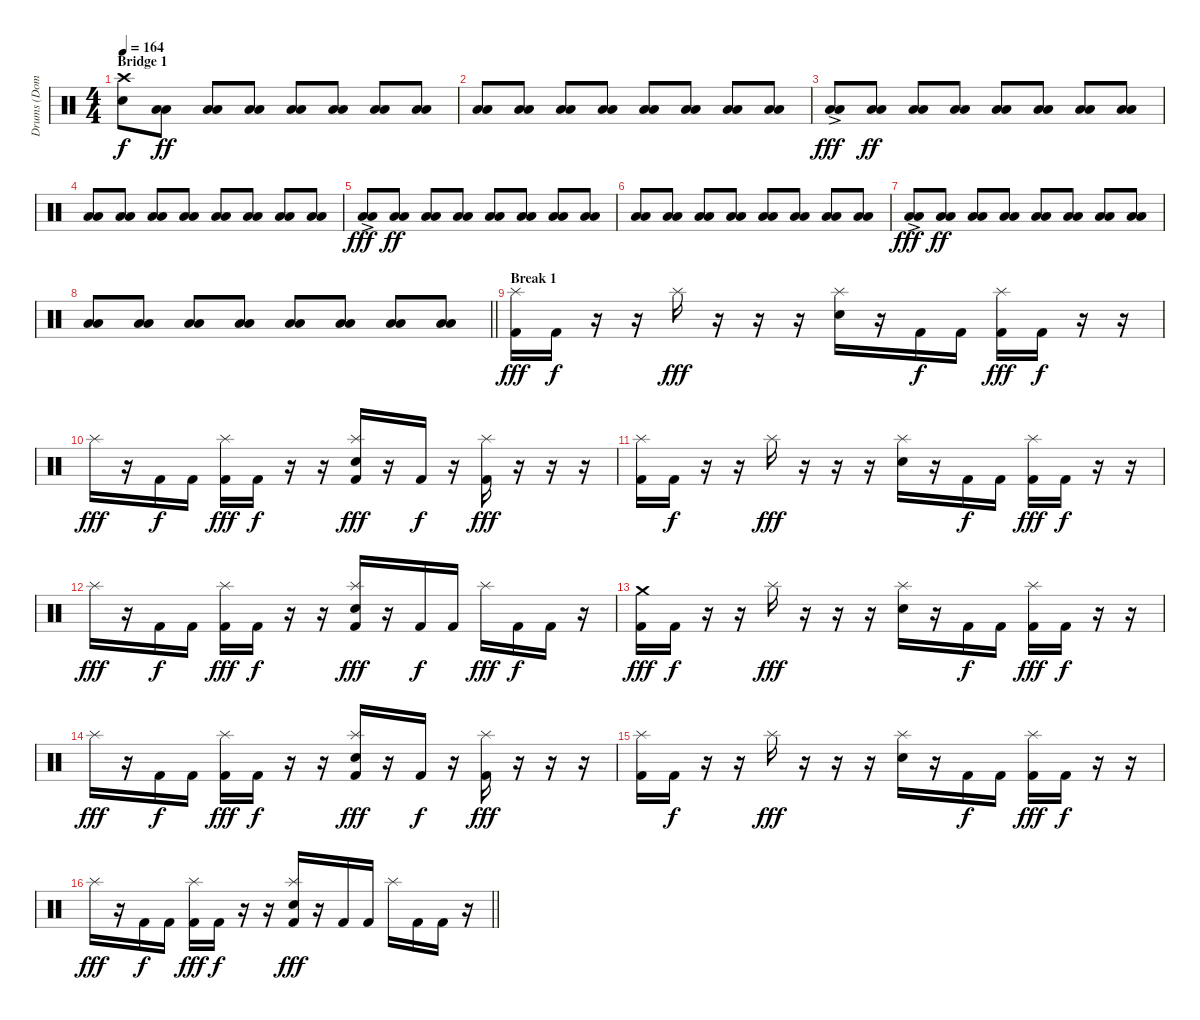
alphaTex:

\track ("Drums (Dominik)" "Drums (Dom") {instrument percussion}
\staff {score}
\articulation defaults
\ts (4 4)
\section ("" "Bridge 1")
\tempo 164
\clef neutral
\ks c
("Crash high (hit)" "Electric Snare (hit)").8{dy f} ("Low Tom (hit)" "Low Floor Tom (hit)").8{dy ff} ("Low Tom (hit)" "Low Floor Tom (hit)").8 ("Low Tom (hit)" "Low Floor Tom (hit)").8 ("Low Tom (hit)" "Low Floor Tom (hit)").8 ("Low Tom (hit)" "Low Floor Tom (hit)").8 ("Low Tom (hit)" "Low Floor Tom (hit)").8 ("Low Tom (hit)" "Low Floor Tom (hit)").8 |
("Low Tom (hit)" "Low Floor Tom (hit)").8 ("Low Tom (hit)" "Low Floor Tom (hit)").8 ("Low Tom (hit)" "Low Floor Tom (hit)").8 ("Low Tom (hit)" "Low Floor Tom (hit)").8 ("Low Tom (hit)" "Low Floor Tom (hit)").8 ("Low Tom (hit)" "Low Floor Tom (hit)").8 ("Low Tom (hit)" "Low Floor Tom (hit)").8 ("Low Tom (hit)" "Low Floor Tom (hit)").8 |
("Low Tom (hit)"{ac} "Low Floor Tom (hit)"{ac}).8{dy fff} ("Low Tom (hit)" "Low Floor Tom (hit)").8{dy ff} ("Low Tom (hit)" "Low Floor Tom (hit)").8 ("Low Tom (hit)" "Low Floor Tom (hit)").8 ("Low Tom (hit)" "Low Floor Tom (hit)").8 ("Low Tom (hit)" "Low Floor Tom (hit)").8 ("Low Tom (hit)" "Low Floor Tom (hit)").8 ("Low Tom (hit)" "Low Floor Tom (hit)").8 |
("Low Tom (hit)" "Low Floor Tom (hit)").8 ("Low Tom (hit)" "Low Floor Tom (hit)").8 ("Low Tom (hit)" "Low Floor Tom (hit)").8 ("Low Tom (hit)" "Low Floor Tom (hit)").8 ("Low Tom (hit)" "Low Floor Tom (hit)").8 ("Low Tom (hit)" "Low Floor Tom (hit)").8 ("Low Tom (hit)" "Low Floor Tom (hit)").8 ("Low Tom (hit)" "Low Floor Tom (hit)").8 |
("Low Tom (hit)"{ac} "Low Floor Tom (hit)"{ac}).8{dy fff} ("Low Tom (hit)" "Low Floor Tom (hit)").8{dy ff} ("Low Tom (hit)" "Low Floor Tom (hit)").8 ("Low Tom (hit)" "Low Floor Tom (hit)").8 ("Low Tom (hit)" "Low Floor Tom (hit)").8 ("Low Tom (hit)" "Low Floor Tom (hit)").8 ("Low Tom (hit)" "Low Floor Tom (hit)").8 ("Low Tom (hit)" "Low Floor Tom (hit)").8 |
("Low Tom (hit)" "Low Floor Tom (hit)").8 ("Low Tom (hit)" "Low Floor Tom (hit)").8 ("Low Tom (hit)" "Low Floor Tom (hit)").8 ("Low Tom (hit)" "Low Floor Tom (hit)").8 ("Low Tom (hit)" "Low Floor Tom (hit)").8 ("Low Tom (hit)" "Low Floor Tom (hit)").8 ("Low Tom (hit)" "Low Floor Tom (hit)").8 ("Low Tom (hit)" "Low Floor Tom (hit)").8 |
("Low Tom (hit)"{ac} "Low Floor Tom (hit)"{ac}).8{dy fff} ("Low Tom (hit)" "Low Floor Tom (hit)").8{dy ff} ("Low Tom (hit)" "Low Floor Tom (hit)").8 ("Low Tom (hit)" "Low Floor Tom (hit)").8 ("Low Tom (hit)" "Low Floor Tom (hit)").8 ("Low Tom (hit)" "Low Floor Tom (hit)").8 ("Low Tom (hit)" "Low Floor Tom (hit)").8 ("Low Tom (hit)" "Low Floor Tom (hit)").8 |
\barLineRight lightlight
("Low Tom (hit)" "Low Floor Tom (hit)").8 ("Low Tom (hit)" "Low Floor Tom (hit)").8 ("Low Tom (hit)" "Low Floor Tom (hit)").8 ("Low Tom (hit)" "Low Floor Tom (hit)").8 ("Low Tom (hit)" "Low Floor Tom (hit)").8 ("Low Tom (hit)" "Low Floor Tom (hit)").8 ("Low Tom (hit)" "Low Floor Tom (hit)").8 ("Low Tom (hit)" "Low Floor Tom (hit)").8 |
\section ("" "Break 1")
("Splash (hit)" "Kick (hit) 2").16{dy fff} "Kick (hit) 2".16{dy f} r.16 r.16 "Splash (hit)".16{dy fff} r.16 r.16 r.16 ("Splash (hit)" "Electric Snare (hit)").16 r.16 "Kick (hit) 2".16{dy f} "Kick (hit) 2".16 ("Splash (hit)" "Kick (hit) 2").16{dy fff} "Kick (hit) 2".16{dy f} r.16 r.16 |
"Splash (hit)".16{dy fff} r.16 "Kick (hit) 2".16{dy f} "Kick (hit) 2".16 ("Splash (hit)" "Kick (hit) 2").16{dy fff} "Kick (hit) 2".16{dy f} r.16 r.16 ("Splash (hit)" "Electric Snare (hit)" "Kick (hit) 2").16{dy fff} r.16 "Kick (hit) 2".16{dy f} r.16 ("Splash (hit)" "Kick (hit) 2").16{dy fff} r.16 r.16 r.16 |
("Splash (hit)" "Kick (hit) 2").16 "Kick (hit) 2".16{dy f} r.16 r.16 "Splash (hit)".16{dy fff} r.16 r.16 r.16 ("Splash (hit)" "Electric Snare (hit)").16 r.16 "Kick (hit) 2".16{dy f} "Kick (hit) 2".16 ("Splash (hit)" "Kick (hit) 2").16{dy fff} "Kick (hit) 2".16{dy f} r.16 r.16 |
"Splash (hit)".16{dy fff} r.16 "Kick (hit) 2".16{dy f} "Kick (hit) 2".16 ("Splash (hit)" "Kick (hit) 2").16{dy fff} "Kick (hit) 2".16{dy f} r.16 r.16 ("Splash (hit)" "Electric Snare (hit)" "Kick (hit) 2").16{dy fff} r.16 "Kick (hit) 2".16{dy f} "Kick (hit) 2".16 "Splash (hit)".16{dy fff} "Kick (hit) 2".16{dy f} "Kick (hit) 2".16 r.16 |
("Crash medium (hit)" "Kick (hit) 2").16{dy fff} "Kick (hit) 2".16{dy f} r.16 r.16 "Splash (hit)".16{dy fff} r.16 r.16 r.16 ("Splash (hit)" "Electric Snare (hit)").16 r.16 "Kick (hit) 2".16{dy f} "Kick (hit) 2".16 ("Splash (hit)" "Kick (hit) 2").16{dy fff} "Kick (hit) 2".16{dy f} r.16 r.16 |
"Splash (hit)".16{dy fff} r.16 "Kick (hit) 2".16{dy f} "Kick (hit) 2".16 ("Splash (hit)" "Kick (hit) 2").16{dy fff} "Kick (hit) 2".16{dy f} r.16 r.16 ("Splash (hit)" "Electric Snare (hit)" "Kick (hit) 2").16{dy fff} r.16 "Kick (hit) 2".16{dy f} r.16 ("Splash (hit)" "Kick (hit) 2").16{dy fff} r.16 r.16 r.16 |
("Splash (hit)" "Kick (hit) 2").16 "Kick (hit) 2".16{dy f} r.16 r.16 "Splash (hit)".16{dy fff} r.16 r.16 r.16 ("Splash (hit)" "Electric Snare (hit)").16 r.16 "Kick (hit) 2".16{dy f} "Kick (hit) 2".16 ("Splash (hit)" "Kick (hit) 2").16{dy fff} "Kick (hit) 2".16{dy f} r.16 r.16 |
\barLineRight lightlight "Splash (hit)".16{dy fff}
r.16 "Kick (hit) 2".16{dy f} "Kick (hit) 2".16 ("Splash (hit)" "Kick (hit) 2").16{dy fff} "Kick (hit) 2".16{dy f} r.16 r.16 ("Splash (hit)" "Electric Snare (hit)" "Kick (hit) 2").16{dy fff} r.16 "Kick (hit) 2".16 "Kick (hit) 2".16 "Splash (hit)".16 "Kick (hit) 2".16 "Kick (hit) 2".16 r.16
